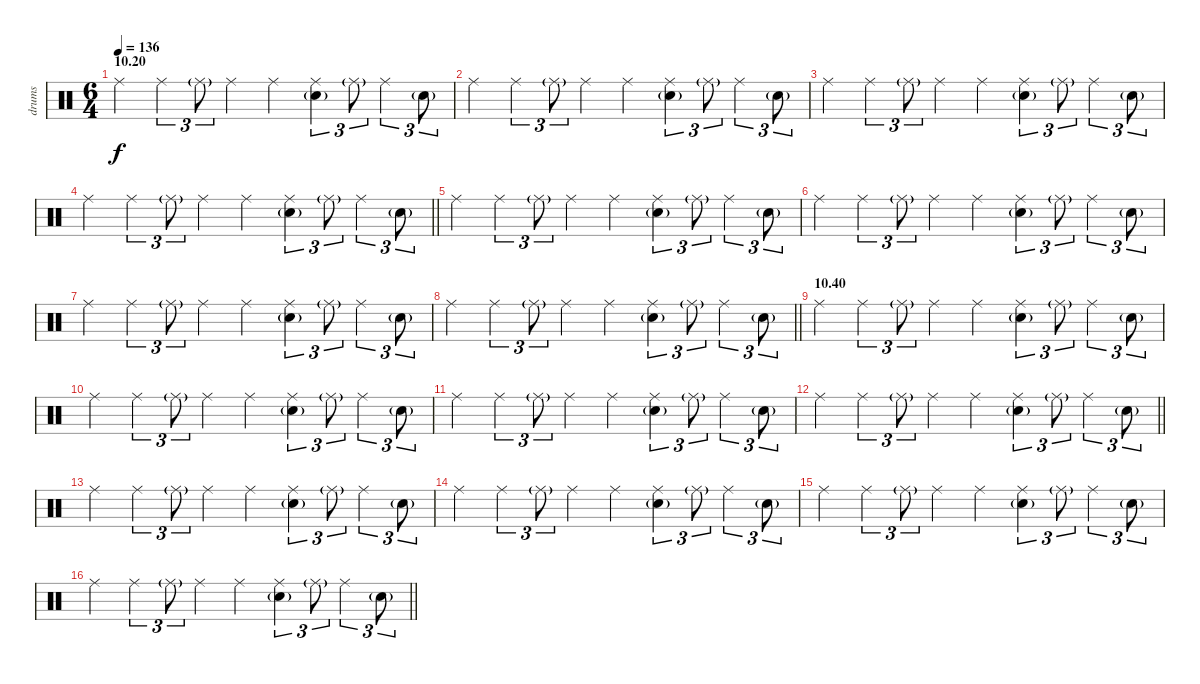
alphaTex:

\track ("drums" "drums") {instrument percussion}
\staff {score}
\articulation defaults
\ts (6 4)
\section ("" "10.20")
\tempo 136
\clef neutral
\ks c "Ride (middle)".4{dy f} "Ride (middle)".4{tu (3 2)} "Ride (middle)"{g}.8{tu (3 2)} "Ride (middle)".4 "Ride (middle)".4
("Ride (middle)" "Electric Snare (hit)"{g}).4{tu (3 2)} "Ride (middle)"{g}.8{tu (3 2)} "Ride (middle)".4{tu (3 2)} "Electric Snare (hit)"{g}.8{tu (3 2)} |
"Ride (middle)".4 "Ride (middle)".4{tu (3 2)} "Ride (middle)"{g}.8{tu (3 2)} "Ride (middle)".4 "Ride (middle)".4 ("Ride (middle)" "Electric Snare (hit)"{g}).4{tu (3 2)} "Ride (middle)"{g}.8{tu (3 2)} "Ride (middle)".4{tu (3 2)} "Electric Snare (hit)"{g}.8{tu (3 2)} |
"Ride (middle)".4 "Ride (middle)".4{tu (3 2)} "Ride (middle)"{g}.8{tu (3 2)} "Ride (middle)".4 "Ride (middle)".4 ("Ride (middle)" "Electric Snare (hit)"{g}).4{tu (3 2)} "Ride (middle)"{g}.8{tu (3 2)} "Ride (middle)".4{tu (3 2)} "Electric Snare (hit)"{g}.8{tu (3 2)} |
\barLineRight lightlight "Ride (middle)".4 "Ride (middle)".4{tu (3 2)} "Ride (middle)"{g}.8{tu (3 2)} "Ride (middle)".4 "Ride (middle)".4
("Ride (middle)" "Electric Snare (hit)"{g}).4{tu (3 2)} "Ride (middle)"{g}.8{tu (3 2)} "Ride (middle)".4{tu (3 2)} "Electric Snare (hit)"{g}.8{tu (3 2)} |
"Ride (middle)".4 "Ride (middle)".4{tu (3 2)} "Ride (middle)"{g}.8{tu (3 2)} "Ride (middle)".4 "Ride (middle)".4 ("Ride (middle)" "Electric Snare (hit)"{g}).4{tu (3 2)} "Ride (middle)"{g}.8{tu (3 2)} "Ride (middle)".4{tu (3 2)} "Electric Snare (hit)"{g}.8{tu (3 2)} |
"Ride (middle)".4 "Ride (middle)".4{tu (3 2)} "Ride (middle)"{g}.8{tu (3 2)} "Ride (middle)".4 "Ride (middle)".4 ("Ride (middle)" "Electric Snare (hit)"{g}).4{tu (3 2)} "Ride (middle)"{g}.8{tu (3 2)} "Ride (middle)".4{tu (3 2)} "Electric Snare (hit)"{g}.8{tu (3 2)} |
"Ride (middle)".4 "Ride (middle)".4{tu (3 2)} "Ride (middle)"{g}.8{tu (3 2)} "Ride (middle)".4 "Ride (middle)".4 ("Ride (middle)" "Electric Snare (hit)"{g}).4{tu (3 2)} "Ride (middle)"{g}.8{tu (3 2)} "Ride (middle)".4{tu (3 2)} "Electric Snare (hit)"{g}.8{tu (3 2)} |
\barLineRight lightlight "Ride (middle)".4 "Ride (middle)".4{tu (3 2)} "Ride (middle)"{g}.8{tu (3 2)} "Ride (middle)".4 "Ride (middle)".4
("Ride (middle)" "Electric Snare (hit)"{g}).4{tu (3 2)} "Ride (middle)"{g}.8{tu (3 2)} "Ride (middle)".4{tu (3 2)} "Electric Snare (hit)"{g}.8{tu (3 2)} |
\section ("" "10.40")
"Ride (middle)".4 "Ride (middle)".4{tu (3 2)} "Ride (middle)"{g}.8{tu (3 2)} "Ride (middle)".4 "Ride (middle)".4 ("Ride (middle)" "Electric Snare (hit)"{g}).4{tu (3 2)} "Ride (middle)"{g}.8{tu (3 2)} "Ride (middle)".4{tu (3 2)} "Electric Snare (hit)"{g}.8{tu (3 2)} |
"Ride (middle)".4 "Ride (middle)".4{tu (3 2)} "Ride (middle)"{g}.8{tu (3 2)} "Ride (middle)".4 "Ride (middle)".4 ("Ride (middle)" "Electric Snare (hit)"{g}).4{tu (3 2)} "Ride (middle)"{g}.8{tu (3 2)} "Ride (middle)".4{tu (3 2)} "Electric Snare (hit)"{g}.8{tu (3 2)} |
"Ride (middle)".4 "Ride (middle)".4{tu (3 2)} "Ride (middle)"{g}.8{tu (3 2)} "Ride (middle)".4 "Ride (middle)".4 ("Ride (middle)" "Electric Snare (hit)"{g}).4{tu (3 2)} "Ride (middle)"{g}.8{tu (3 2)} "Ride (middle)".4{tu (3 2)} "Electric Snare (hit)"{g}.8{tu (3 2)} |
\barLineRight lightlight "Ride (middle)".4 "Ride (middle)".4{tu (3 2)} "Ride (middle)"{g}.8{tu (3 2)} "Ride (middle)".4 "Ride (middle)".4
("Ride (middle)" "Electric Snare (hit)"{g}).4{tu (3 2)} "Ride (middle)"{g}.8{tu (3 2)} "Ride (middle)".4{tu (3 2)} "Electric Snare (hit)"{g}.8{tu (3 2)} |
"Ride (middle)".4 "Ride (middle)".4{tu (3 2)} "Ride (middle)"{g}.8{tu (3 2)} "Ride (middle)".4 "Ride (middle)".4 ("Ride (middle)" "Electric Snare (hit)"{g}).4{tu (3 2)} "Ride (middle)"{g}.8{tu (3 2)} "Ride (middle)".4{tu (3 2)} "Electric Snare (hit)"{g}.8{tu (3 2)} |
"Ride (middle)".4 "Ride (middle)".4{tu (3 2)} "Ride (middle)"{g}.8{tu (3 2)} "Ride (middle)".4 "Ride (middle)".4 ("Ride (middle)" "Electric Snare (hit)"{g}).4{tu (3 2)} "Ride (middle)"{g}.8{tu (3 2)} "Ride (middle)".4{tu (3 2)} "Electric Snare (hit)"{g}.8{tu (3 2)} |
"Ride (middle)".4 "Ride (middle)".4{tu (3 2)} "Ride (middle)"{g}.8{tu (3 2)} "Ride (middle)".4 "Ride (middle)".4 ("Ride (middle)" "Electric Snare (hit)"{g}).4{tu (3 2)} "Ride (middle)"{g}.8{tu (3 2)} "Ride (middle)".4{tu (3 2)} "Electric Snare (hit)"{g}.8{tu (3 2)} |
\barLineRight lightlight "Ride (middle)".4 "Ride (middle)".4{tu (3 2)} "Ride (middle)"{g}.8{tu (3 2)} "Ride (middle)".4 "Ride (middle)".4
("Ride (middle)" "Electric Snare (hit)"{g}).4{tu (3 2)} "Ride (middle)"{g}.8{tu (3 2)} "Ride (middle)".4{tu (3 2)} "Electric Snare (hit)"{g}.8{tu (3 2)}
